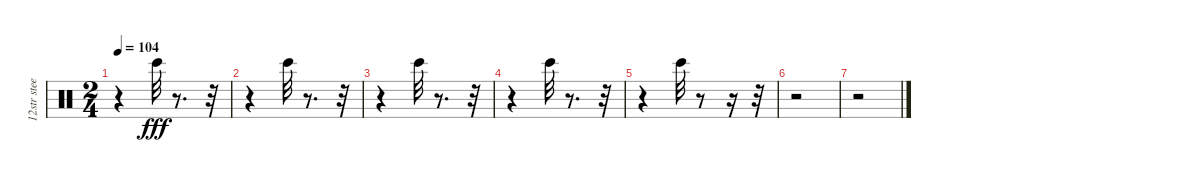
\track ("12str steel mute " "12str stee") {instrument percussion}
\staff {score}
\articulation defaults
\ts (2 4)
\tempo 104
\clef neutral
\ks c
r.4{dy fff} "Bongo High (hit)".32 r.8{d} r.32 |
r.4 "Bongo High (hit)".32 r.8{d} r.32 |
r.4 "Bongo High (hit)".32 r.8{d} r.32 |
r.4 "Bongo High (hit)".32 r.8{d} r.32 |
r.4 "Bongo High (hit)".32 r.8 r.16 r.32 |
r.2 |
r.2
